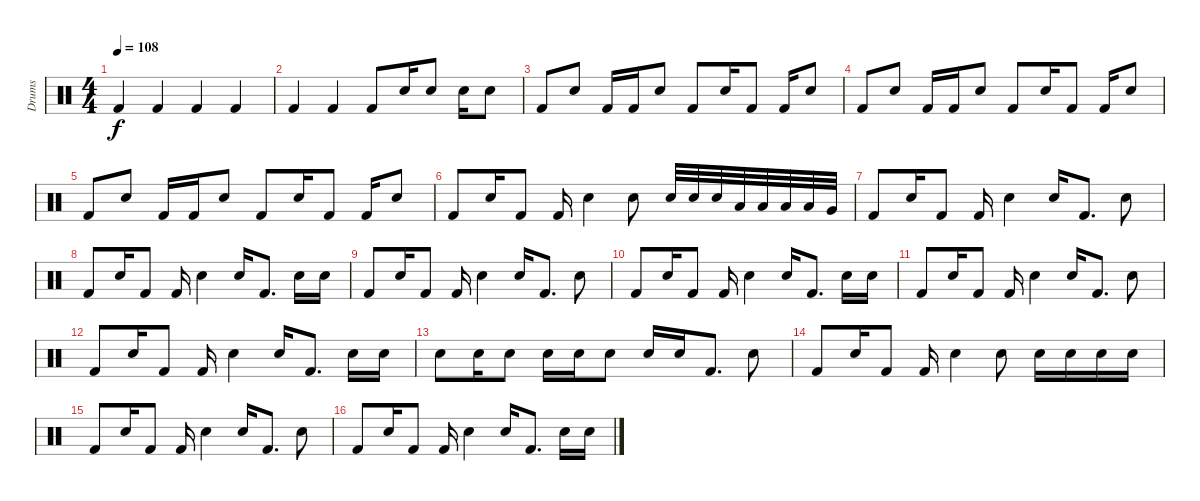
\track ("Drums" "Drums") {instrument percussion}
\staff {score}
\articulation defaults
\ts (4 4)
\tempo 108
\clef neutral
\ks c "Kick (hit) 2".4{dy f} "Kick (hit) 2".4 "Kick (hit) 2".4 "Kick (hit) 2".4
|
"Kick (hit) 2".4 "Kick (hit) 2".4 "Kick (hit) 2".8 "Electric Snare (hit)".16 "Electric Snare (hit)".8 "Electric Snare (hit)".16 "Electric Snare (hit)".8 |
"Kick (hit) 2".8 "Electric Snare (hit)".8 "Kick (hit) 2".16 "Kick (hit) 2".16 "Electric Snare (hit)".8 "Kick (hit) 2".8 "Electric Snare (hit)".16 "Kick (hit) 2".8 "Kick (hit) 2".16 "Electric Snare (hit)".8 |
"Kick (hit) 2".8 "Electric Snare (hit)".8 "Kick (hit) 2".16 "Kick (hit) 2".16 "Electric Snare (hit)".8 "Kick (hit) 2".8 "Electric Snare (hit)".16 "Kick (hit) 2".8 "Kick (hit) 2".16 "Electric Snare (hit)".8 |
"Kick (hit) 2".8 "Electric Snare (hit)".8 "Kick (hit) 2".16 "Kick (hit) 2".16 "Electric Snare (hit)".8 "Kick (hit) 2".8 "Electric Snare (hit)".16 "Kick (hit) 2".8 "Kick (hit) 2".16 "Electric Snare (hit)".8 |
"Kick (hit) 2".8 "Electric Snare (hit)".16 "Kick (hit) 2".8 "Kick (hit) 2".16 "Electric Snare (hit)".4 "Electric Snare (hit)".8 "Electric Snare (hit)".32 "Electric Snare (hit)".32 "Electric Snare (hit)".32 "Low Tom (hit)".32 "Low Tom (hit)".32 "Low Tom (hit)".32 "Low Tom (hit)".32 "Very Low Tom (hit)".32 |
"Kick (hit) 2".8 "Electric Snare (hit)".16 "Kick (hit) 2".8 "Kick (hit) 2".16 "Electric Snare (hit)".4 "Electric Snare (hit)".16 "Kick (hit) 2".8{d} "Electric Snare (hit)".8 |
"Kick (hit) 2".8 "Electric Snare (hit)".16 "Kick (hit) 2".8 "Kick (hit) 2".16 "Electric Snare (hit)".4 "Electric Snare (hit)".16 "Kick (hit) 2".8{d} "Electric Snare (hit)".16 "Electric Snare (hit)".16 |
"Kick (hit) 2".8 "Electric Snare (hit)".16 "Kick (hit) 2".8 "Kick (hit) 2".16 "Electric Snare (hit)".4 "Electric Snare (hit)".16 "Kick (hit) 2".8{d} "Electric Snare (hit)".8 |
"Kick (hit) 2".8 "Electric Snare (hit)".16 "Kick (hit) 2".8 "Kick (hit) 2".16 "Electric Snare (hit)".4 "Electric Snare (hit)".16 "Kick (hit) 2".8{d} "Electric Snare (hit)".16 "Electric Snare (hit)".16 |
"Kick (hit) 2".8 "Electric Snare (hit)".16 "Kick (hit) 2".8 "Kick (hit) 2".16 "Electric Snare (hit)".4 "Electric Snare (hit)".16 "Kick (hit) 2".8{d} "Electric Snare (hit)".8 |
"Kick (hit) 2".8 "Electric Snare (hit)".16 "Kick (hit) 2".8 "Kick (hit) 2".16 "Electric Snare (hit)".4 "Electric Snare (hit)".16 "Kick (hit) 2".8{d} "Electric Snare (hit)".16 "Electric Snare (hit)".16 |
"Electric Snare (hit)".8 "Electric Snare (hit)".16 "Electric Snare (hit)".8 "Electric Snare (hit)".16 "Electric Snare (hit)".16 "Electric Snare (hit)".8 "Electric Snare (hit)".16 "Electric Snare (hit)".16 "Kick (hit) 2".8{d} "Electric Snare (hit)".8 |
"Kick (hit) 2".8 "Electric Snare (hit)".16 "Kick (hit) 2".8 "Kick (hit) 2".16 "Electric Snare (hit)".4 "Electric Snare (hit)".8 "Electric Snare (hit)".16 "Electric Snare (hit)".16 "Electric Snare (hit)".16 "Electric Snare (hit)".16 |
"Kick (hit) 2".8 "Electric Snare (hit)".16 "Kick (hit) 2".8 "Kick (hit) 2".16 "Electric Snare (hit)".4 "Electric Snare (hit)".16 "Kick (hit) 2".8{d} "Electric Snare (hit)".8 |
"Kick (hit) 2".8 "Electric Snare (hit)".16 "Kick (hit) 2".8 "Kick (hit) 2".16 "Electric Snare (hit)".4 "Electric Snare (hit)".16 "Kick (hit) 2".8{d} "Electric Snare (hit)".16 "Electric Snare (hit)".16
